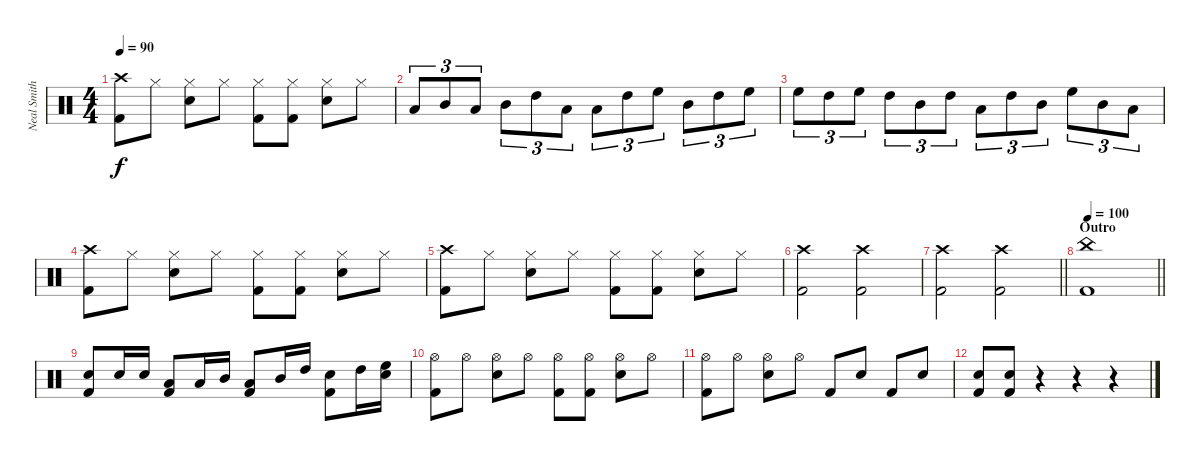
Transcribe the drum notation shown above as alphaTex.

\track ("Neal Smith" "Neal Smith") {instrument percussion}
\staff {score}
\articulation defaults
\ts (4 4)
\tempo 90
\clef neutral
\ks c
("Crash high (hit)" "Kick (hit) 2").8{dy f} "Hi-Hat (closed)".8 ("Hi-Hat (closed)" "Snare (hit) 2").8 "Hi-Hat (closed)".8 ("Hi-Hat (closed)" "Kick (hit) 2").8 ("Hi-Hat (closed)" "Kick (hit) 2").8 ("Hi-Hat (closed)" "Snare (hit) 2").8 "Hi-Hat (closed)".8 |
"Low Tom (hit)".8{tu (3 2)} "Mid Tom (hit)".8{tu (3 2)} "Low Tom (hit)".8{tu (3 2)} "Mid Tom (hit)".8{tu (3 2)} "High Tom (hit)".8{tu (3 2)} "Low Tom (hit)".8{tu (3 2)} "Low Tom (hit)".8{tu (3 2)} "High Tom (hit)".8{tu (3 2)} "High Floor Tom (hit)".8{tu (3 2)} "Mid Tom (hit)".8{tu (3 2)} "High Tom (hit)".8{tu (3 2)} "High Floor Tom (hit)".8{tu (3 2)} |
"High Floor Tom (hit)".8{tu (3 2)} "High Tom (hit)".8{tu (3 2)} "High Floor Tom (hit)".8{tu (3 2)} "High Tom (hit)".8{tu (3 2)} "Mid Tom (hit)".8{tu (3 2)} "High Tom (hit)".8{tu (3 2)} "Low Tom (hit)".8{tu (3 2)} "High Tom (hit)".8{tu (3 2)} "Mid Tom (hit)".8{tu (3 2)} "High Floor Tom (hit)".8{tu (3 2)} "Mid Tom (hit)".8{tu (3 2)} "Low Tom (hit)".8{tu (3 2)} |
("Crash high (hit)" "Kick (hit) 2").8 "Hi-Hat (closed)".8 ("Hi-Hat (closed)" "Snare (hit) 2").8 "Hi-Hat (closed)".8 ("Hi-Hat (closed)" "Kick (hit) 2").8 ("Hi-Hat (closed)" "Kick (hit) 2").8 ("Hi-Hat (closed)" "Snare (hit) 2").8 "Hi-Hat (closed)".8 |
("Crash high (hit)" "Kick (hit) 2").8 "Hi-Hat (closed)".8 ("Hi-Hat (closed)" "Snare (hit) 2").8 "Hi-Hat (closed)".8 ("Hi-Hat (closed)" "Kick (hit) 2").8 ("Hi-Hat (closed)" "Kick (hit) 2").8 ("Hi-Hat (closed)" "Snare (hit) 2").8 "Hi-Hat (closed)".8 |
("Crash high (hit)" "Kick (hit) 2").2 ("Crash high (hit)" "Kick (hit) 2").2 |
\barLineRight lightlight
("Crash high (hit)" "Kick (hit) 2").2 ("Crash high (hit)" "Kick (hit) 2").2 |
\section ("" "Outro")
\tempo 100
\barLineRight lightlight
("China (hit)" "Kick (hit) 2").1 |
("Snare (hit) 2" "Kick (hit) 2").8 "Snare (hit) 2".16 "Snare (hit) 2".16 ("Low Tom (hit)" "Kick (hit) 2").8 "Low Tom (hit)".16 "Mid Tom (hit)".16 ("Low Tom (hit)" "Kick (hit) 2").8 "Mid Tom (hit)".16 "High Tom (hit)".16 ("Snare (hit) 2" "Kick (hit) 2").8 "High Tom (hit)".16 ("High Floor Tom (hit)" "Snare (hit) 2").16 |
("Hi-Hat (open)" "Kick (hit) 2").8 "Hi-Hat (open)".8 ("Hi-Hat (open)" "Snare (hit) 2").8 "Hi-Hat (open)".8 ("Hi-Hat (open)" "Kick (hit) 2").8 ("Hi-Hat (open)" "Kick (hit) 2").8 ("Hi-Hat (open)" "Snare (hit) 2").8 "Hi-Hat (open)".8 |
("Hi-Hat (open)" "Kick (hit) 2").8 "Hi-Hat (open)".8 ("Hi-Hat (open)" "Snare (hit) 2").8 "Hi-Hat (open)".8 "Kick (hit) 2".8 "Snare (hit) 2".8 "Kick (hit) 2".8 "Snare (hit) 2".8 |
("Snare (hit) 2" "Kick (hit) 2").8 ("Snare (hit) 2" "Kick (hit) 2").8 r.4 r.4 r.4
